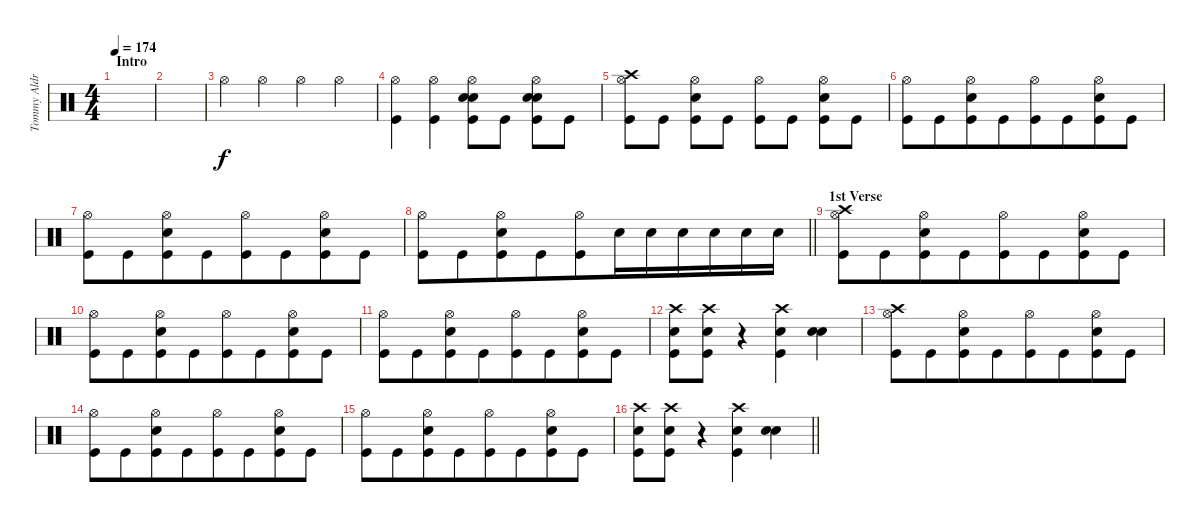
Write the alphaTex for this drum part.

\track ("Tommy Aldrige" "Tommy Aldr") {instrument percussion}
\staff {score}
\articulation defaults
\ts (4 4)
\section ("" "Intro")
\tempo 174
\clef neutral
\ks c
|
|
"Hi-Hat (open)".4 "Hi-Hat (open)".4 "Hi-Hat (open)".4 "Hi-Hat (open)".4 |
("Hi-Hat (open)" "Kick (hit)").4 ("Hi-Hat (open)" "Kick (hit)").4 ("Hi-Hat (open)" "Snare (hit) 2" "Snare (hit) 2" "Kick (hit)").8{bd 480} "Kick (hit)".8 ("Hi-Hat (open)" "Snare (hit) 2" "Snare (hit) 2" "Kick (hit)").8{bd 480} "Kick (hit)".8 |
("Hi-Hat (open)" "Kick (hit)" "Crash high (hit)").8 "Kick (hit)".8 ("Hi-Hat (open)" "Kick (hit)" "Snare (hit) 2").8 "Kick (hit)".8 ("Hi-Hat (open)" "Kick (hit)").8 "Kick (hit)".8 ("Hi-Hat (open)" "Kick (hit)" "Snare (hit) 2").8 "Kick (hit)".8 |
("Hi-Hat (open)" "Kick (hit)").8{beam merge} "Kick (hit)".8{beam merge} ("Hi-Hat (open)" "Kick (hit)" "Snare (hit) 2").8{beam merge} "Kick (hit)".8{beam merge} ("Hi-Hat (open)" "Kick (hit)").8{beam merge} "Kick (hit)".8{beam merge} ("Hi-Hat (open)" "Kick (hit)" "Snare (hit) 2").8{beam merge} "Kick (hit)".8 |
("Hi-Hat (open)" "Kick (hit)").8{beam merge} "Kick (hit)".8{beam merge} ("Hi-Hat (open)" "Kick (hit)" "Snare (hit) 2").8{beam merge} "Kick (hit)".8{beam merge} ("Hi-Hat (open)" "Kick (hit)").8 "Kick (hit)".8{beam merge} ("Hi-Hat (open)" "Kick (hit)" "Snare (hit) 2").8{beam merge} "Kick (hit)".8 |
\barLineRight lightlight
("Hi-Hat (open)" "Kick (hit)").8{beam merge} "Kick (hit)".8{beam merge} ("Hi-Hat (open)" "Kick (hit)" "Snare (hit) 2").8{beam merge} "Kick (hit)".8{beam merge} ("Hi-Hat (open)" "Kick (hit)").8{beam merge} "Snare (hit) 2".16{beam merge} "Snare (hit) 2".16{beam merge} "Snare (hit) 2".16 "Snare (hit) 2".16{beam merge} "Snare (hit) 2".16{beam merge} "Snare (hit) 2".16 |
\section ("" "1st Verse")
("Hi-Hat (open)" "Kick (hit)" "Crash high (hit)").8{beam merge} "Kick (hit)".8{beam merge} ("Hi-Hat (open)" "Kick (hit)" "Snare (hit) 2").8{beam merge} "Kick (hit)".8{beam merge} ("Hi-Hat (open)" "Kick (hit)").8{beam merge} "Kick (hit)".8{beam merge} ("Hi-Hat (open)" "Kick (hit)" "Snare (hit) 2").8{beam merge} "Kick (hit)".8 |
("Hi-Hat (open)" "Kick (hit)").8{beam merge} "Kick (hit)".8{beam merge} ("Hi-Hat (open)" "Kick (hit)" "Snare (hit) 2").8{beam merge} "Kick (hit)".8{beam merge} ("Hi-Hat (open)" "Kick (hit)").8 "Kick (hit)".8{beam merge} ("Hi-Hat (open)" "Kick (hit)" "Snare (hit) 2").8{beam merge} "Kick (hit)".8 |
("Hi-Hat (open)" "Kick (hit)").8{beam merge} "Kick (hit)".8{beam merge} ("Hi-Hat (open)" "Kick (hit)" "Snare (hit) 2").8{beam merge} "Kick (hit)".8{beam merge} ("Hi-Hat (open)" "Kick (hit)").8{beam merge} "Kick (hit)".8{beam merge} ("Hi-Hat (open)" "Kick (hit)" "Snare (hit) 2").8{beam merge} "Kick (hit)".8 |
("Crash high (hit)" "Kick (hit)" "Snare (hit) 2").8{beam merge} ("Crash high (hit)" "Kick (hit)" "Snare (hit) 2").8{beam merge} r.4{beam merge} ("Crash high (hit)" "Kick (hit)" "Snare (hit) 2").4 ("Snare (hit) 2" "Snare (hit) 2").4{bu 240} |
("Hi-Hat (open)" "Kick (hit)" "Crash high (hit)").8{beam merge} "Kick (hit)".8{beam merge} ("Hi-Hat (open)" "Kick (hit)" "Snare (hit) 2").8{beam merge} "Kick (hit)".8{beam merge} ("Hi-Hat (open)" "Kick (hit)").8{beam merge} "Kick (hit)".8{beam merge} ("Hi-Hat (open)" "Kick (hit)" "Snare (hit) 2").8{beam merge} "Kick (hit)".8 |
("Hi-Hat (open)" "Kick (hit)").8{beam merge} "Kick (hit)".8{beam merge} ("Hi-Hat (open)" "Kick (hit)" "Snare (hit) 2").8{beam merge} "Kick (hit)".8{beam merge} ("Hi-Hat (open)" "Kick (hit)").8 "Kick (hit)".8{beam merge} ("Hi-Hat (open)" "Kick (hit)" "Snare (hit) 2").8{beam merge} "Kick (hit)".8 |
("Hi-Hat (open)" "Kick (hit)").8{beam merge} "Kick (hit)".8{beam merge} ("Hi-Hat (open)" "Kick (hit)" "Snare (hit) 2").8{beam merge} "Kick (hit)".8{beam merge} ("Hi-Hat (open)" "Kick (hit)").8{beam merge} "Kick (hit)".8{beam merge} ("Hi-Hat (open)" "Kick (hit)" "Snare (hit) 2").8{beam merge} "Kick (hit)".8 |
\barLineRight lightlight
("Crash high (hit)" "Kick (hit)" "Snare (hit) 2").8{beam merge} ("Crash high (hit)" "Kick (hit)" "Snare (hit) 2").8{beam merge} r.4{beam merge} ("Crash high (hit)" "Kick (hit)" "Snare (hit) 2").4 ("Snare (hit) 2" "Snare (hit) 2").4{bu 240}
